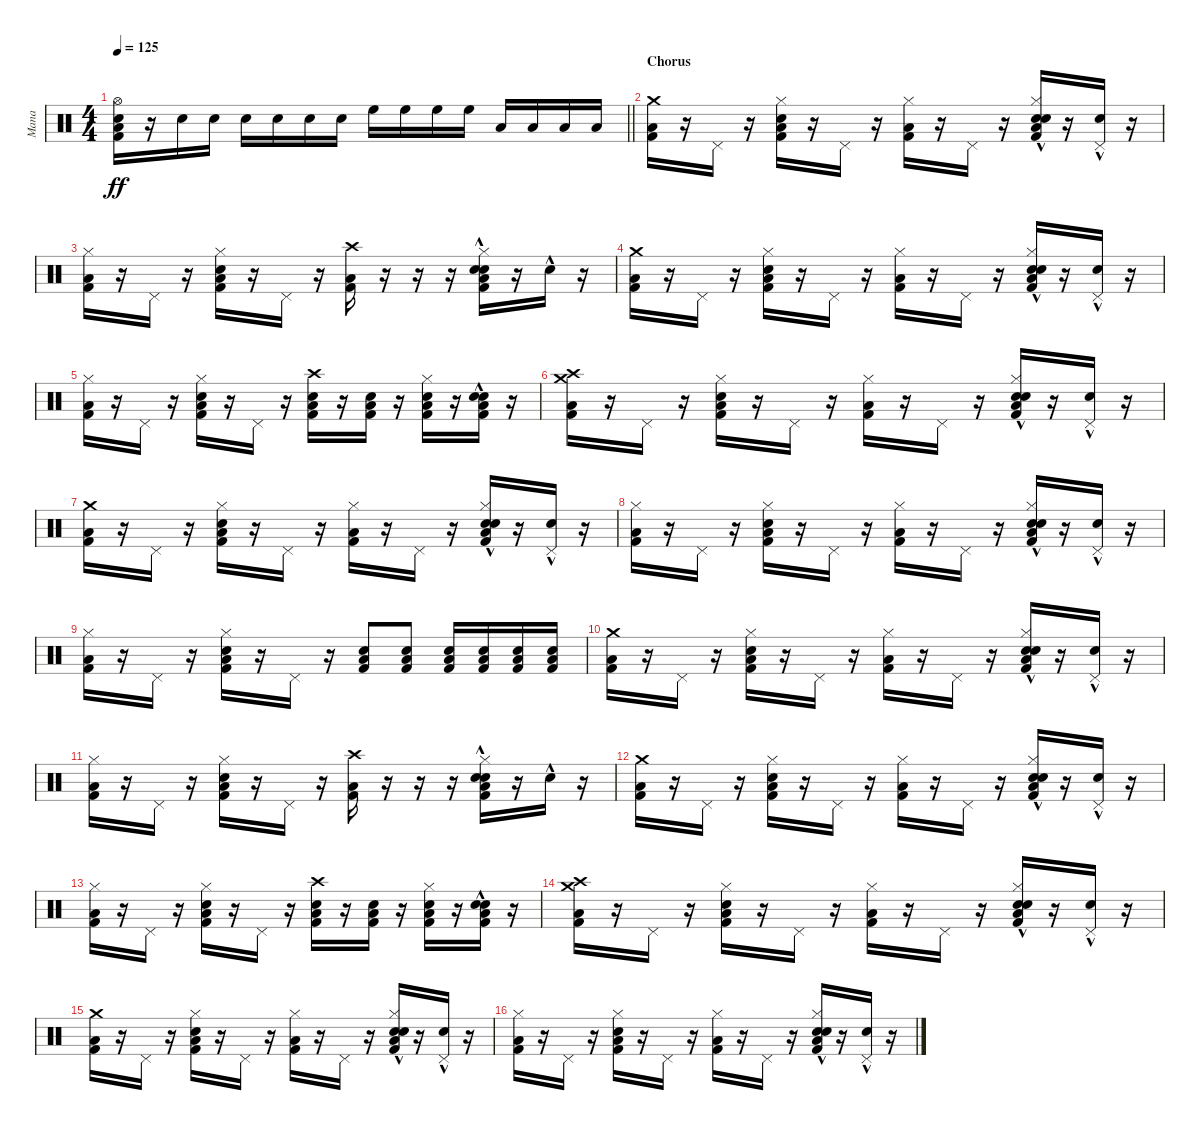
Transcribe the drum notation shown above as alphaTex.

\track ("Mana" "Mana") {instrument percussion}
\staff {score}
\articulation defaults
\ts (4 4)
\tempo 125
\clef neutral
\barLineRight lightlight
\ks c
("Hi-Hat (open)" "Snare (hit) 2" "Low Floor Tom (hit)" "Kick (hit) 2").16{dy ff} r.16 "Snare (hit) 2".16 "Snare (hit) 2".16 "Snare (hit) 2".16 "Snare (hit) 2".16 "Snare (hit) 2".16 "Snare (hit) 2".16 "High Floor Tom (hit)".16 "High Floor Tom (hit)".16 "High Floor Tom (hit)".16 "High Floor Tom (hit)".16 "Low Floor Tom (hit)".16 "Low Floor Tom (hit)".16 "Low Floor Tom (hit)".16 "Low Floor Tom (hit)".16 |
\section ("" "Chorus")
("Crash medium (hit)" "Low Floor Tom (hit)" "Kick (hit) 2").16 r.16 "Pedal Hi-Hat (hit)".16 r.16 ("Hi-Hat (closed)" "Snare (hit) 2" "Low Floor Tom (hit)" "Kick (hit) 2").16 r.16 "Pedal Hi-Hat (hit)".16 r.16 ("Hi-Hat (closed)" "Low Floor Tom (hit)" "Kick (hit) 2").16 r.16 "Pedal Hi-Hat (hit)".16 r.16 ("Hand Clap (hit)"{hac} "Hi-Hat (closed)" "Snare (hit) 2" "Low Floor Tom (hit)" "Kick (hit) 2").16 r.16 ("Hand Clap (hit)"{hac} "Pedal Hi-Hat (hit)").16 r.16 |
("Hi-Hat (closed)" "Low Floor Tom (hit)" "Kick (hit) 2").16 r.16 "Pedal Hi-Hat (hit)".16 r.16 ("Hi-Hat (closed)" "Snare (hit) 2" "Low Floor Tom (hit)" "Kick (hit) 2").16 r.16 "Pedal Hi-Hat (hit)".16 r.16 ("Crash high (hit)" "Low Floor Tom (hit)" "Kick (hit) 2").16 r.16 r.16 r.16 ("Hand Clap (hit)"{hac} "Hi-Hat (closed)" "Snare (hit) 2" "Low Floor Tom (hit)" "Kick (hit) 2").16 r.16 "Hand Clap (hit)"{hac}.16 r.16 |
("Crash medium (hit)" "Low Floor Tom (hit)" "Kick (hit) 2").16 r.16 "Pedal Hi-Hat (hit)".16 r.16 ("Hi-Hat (closed)" "Snare (hit) 2" "Low Floor Tom (hit)" "Kick (hit) 2").16 r.16 "Pedal Hi-Hat (hit)".16 r.16 ("Hi-Hat (closed)" "Low Floor Tom (hit)" "Kick (hit) 2").16 r.16 "Pedal Hi-Hat (hit)".16 r.16 ("Hand Clap (hit)"{hac} "Hi-Hat (closed)" "Snare (hit) 2" "Low Floor Tom (hit)" "Kick (hit) 2").16 r.16 ("Hand Clap (hit)"{hac} "Pedal Hi-Hat (hit)").16 r.16 |
("Hi-Hat (closed)" "Low Floor Tom (hit)" "Kick (hit) 2").16 r.16 "Pedal Hi-Hat (hit)".16 r.16 ("Hi-Hat (closed)" "Snare (hit) 2" "Low Floor Tom (hit)" "Kick (hit) 2").16 r.16 "Pedal Hi-Hat (hit)".16 r.16 ("Crash high (hit)" "Snare (hit) 2" "Low Floor Tom (hit)" "Kick (hit) 2").16 r.16 ("Snare (hit) 2" "Low Floor Tom (hit)" "Kick (hit) 2").16 r.16 ("Hand Clap (hit)" "Hi-Hat (closed)" "Low Floor Tom (hit)" "Kick (hit) 2").16 r.16 ("Hand Clap (hit)"{hac} "Snare (hit) 2" "Low Floor Tom (hit)" "Kick (hit) 2").16 r.16 |
("Crash medium (hit)" "Crash high (hit)" "Low Floor Tom (hit)" "Kick (hit) 2").16 r.16 "Pedal Hi-Hat (hit)".16 r.16 ("Hi-Hat (closed)" "Snare (hit) 2" "Low Floor Tom (hit)" "Kick (hit) 2").16 r.16 "Pedal Hi-Hat (hit)".16 r.16 ("Hi-Hat (closed)" "Low Floor Tom (hit)" "Kick (hit) 2").16 r.16 "Pedal Hi-Hat (hit)".16 r.16 ("Hand Clap (hit)"{hac} "Hi-Hat (closed)" "Snare (hit) 2" "Low Floor Tom (hit)" "Kick (hit) 2").16 r.16 ("Hand Clap (hit)"{hac} "Pedal Hi-Hat (hit)").16 r.16 |
("Crash medium (hit)" "Low Floor Tom (hit)" "Kick (hit) 2").16 r.16 "Pedal Hi-Hat (hit)".16 r.16 ("Hi-Hat (closed)" "Snare (hit) 2" "Low Floor Tom (hit)" "Kick (hit) 2").16 r.16 "Pedal Hi-Hat (hit)".16 r.16 ("Hi-Hat (closed)" "Low Floor Tom (hit)" "Kick (hit) 2").16 r.16 "Pedal Hi-Hat (hit)".16 r.16 ("Hand Clap (hit)"{hac} "Hi-Hat (closed)" "Snare (hit) 2" "Low Floor Tom (hit)" "Kick (hit) 2").16 r.16 ("Hand Clap (hit)"{hac} "Pedal Hi-Hat (hit)").16 r.16 |
("Hi-Hat (closed)" "Low Floor Tom (hit)" "Kick (hit) 2").16 r.16 "Pedal Hi-Hat (hit)".16 r.16 ("Hi-Hat (closed)" "Snare (hit) 2" "Low Floor Tom (hit)" "Kick (hit) 2").16 r.16 "Pedal Hi-Hat (hit)".16 r.16 ("Hi-Hat (closed)" "Low Floor Tom (hit)" "Kick (hit) 2").16 r.16 "Pedal Hi-Hat (hit)".16 r.16 ("Hand Clap (hit)"{hac} "Hi-Hat (closed)" "Snare (hit) 2" "Low Floor Tom (hit)" "Kick (hit) 2").16 r.16 ("Hand Clap (hit)"{hac} "Pedal Hi-Hat (hit)").16 r.16 |
("Hi-Hat (closed)" "Low Floor Tom (hit)" "Kick (hit) 2").16 r.16 "Pedal Hi-Hat (hit)".16 r.16 ("Hi-Hat (closed)" "Snare (hit) 2" "Low Floor Tom (hit)" "Kick (hit) 2").16 r.16 "Pedal Hi-Hat (hit)".16 r.16 ("Low Floor Tom (hit)" "Snare (hit) 2" "Kick (hit) 2").8 ("Low Floor Tom (hit)" "Snare (hit) 2" "Kick (hit) 2").8 ("Low Floor Tom (hit)" "Snare (hit) 2" "Kick (hit) 2").16 ("Low Floor Tom (hit)" "Snare (hit) 2" "Kick (hit) 2").16 ("Low Floor Tom (hit)" "Snare (hit) 2" "Kick (hit) 2").16 ("Low Floor Tom (hit)" "Snare (hit) 2" "Kick (hit) 2").16 |
("Crash medium (hit)" "Low Floor Tom (hit)" "Kick (hit) 2").16 r.16 "Pedal Hi-Hat (hit)".16 r.16 ("Hi-Hat (closed)" "Snare (hit) 2" "Low Floor Tom (hit)" "Kick (hit) 2").16 r.16 "Pedal Hi-Hat (hit)".16 r.16 ("Hi-Hat (closed)" "Low Floor Tom (hit)" "Kick (hit) 2").16 r.16 "Pedal Hi-Hat (hit)".16 r.16 ("Hand Clap (hit)"{hac} "Hi-Hat (closed)" "Snare (hit) 2" "Low Floor Tom (hit)" "Kick (hit) 2").16 r.16 ("Hand Clap (hit)"{hac} "Pedal Hi-Hat (hit)").16 r.16 |
("Hi-Hat (closed)" "Low Floor Tom (hit)" "Kick (hit) 2").16 r.16 "Pedal Hi-Hat (hit)".16 r.16 ("Hi-Hat (closed)" "Snare (hit) 2" "Low Floor Tom (hit)" "Kick (hit) 2").16 r.16 "Pedal Hi-Hat (hit)".16 r.16 ("Crash high (hit)" "Low Floor Tom (hit)" "Kick (hit) 2").16 r.16 r.16 r.16 ("Hand Clap (hit)"{hac} "Hi-Hat (closed)" "Snare (hit) 2" "Low Floor Tom (hit)" "Kick (hit) 2").16 r.16 "Hand Clap (hit)"{hac}.16 r.16 |
("Crash medium (hit)" "Low Floor Tom (hit)" "Kick (hit) 2").16 r.16 "Pedal Hi-Hat (hit)".16 r.16 ("Hi-Hat (closed)" "Snare (hit) 2" "Low Floor Tom (hit)" "Kick (hit) 2").16 r.16 "Pedal Hi-Hat (hit)".16 r.16 ("Hi-Hat (closed)" "Low Floor Tom (hit)" "Kick (hit) 2").16 r.16 "Pedal Hi-Hat (hit)".16 r.16 ("Hand Clap (hit)"{hac} "Hi-Hat (closed)" "Snare (hit) 2" "Low Floor Tom (hit)" "Kick (hit) 2").16 r.16 ("Hand Clap (hit)"{hac} "Pedal Hi-Hat (hit)").16 r.16 |
("Hi-Hat (closed)" "Low Floor Tom (hit)" "Kick (hit) 2").16 r.16 "Pedal Hi-Hat (hit)".16 r.16 ("Hi-Hat (closed)" "Snare (hit) 2" "Low Floor Tom (hit)" "Kick (hit) 2").16 r.16 "Pedal Hi-Hat (hit)".16 r.16 ("Crash high (hit)" "Snare (hit) 2" "Low Floor Tom (hit)" "Kick (hit) 2").16 r.16 ("Snare (hit) 2" "Low Floor Tom (hit)" "Kick (hit) 2").16 r.16 ("Hand Clap (hit)" "Hi-Hat (closed)" "Low Floor Tom (hit)" "Kick (hit) 2").16 r.16 ("Hand Clap (hit)"{hac} "Snare (hit) 2" "Low Floor Tom (hit)" "Kick (hit) 2").16 r.16 |
("Crash medium (hit)" "Crash high (hit)" "Low Floor Tom (hit)" "Kick (hit) 2").16 r.16 "Pedal Hi-Hat (hit)".16 r.16 ("Hi-Hat (closed)" "Snare (hit) 2" "Low Floor Tom (hit)" "Kick (hit) 2").16 r.16 "Pedal Hi-Hat (hit)".16 r.16 ("Hi-Hat (closed)" "Low Floor Tom (hit)" "Kick (hit) 2").16 r.16 "Pedal Hi-Hat (hit)".16 r.16 ("Hand Clap (hit)"{hac} "Hi-Hat (closed)" "Snare (hit) 2" "Low Floor Tom (hit)" "Kick (hit) 2").16 r.16 ("Hand Clap (hit)"{hac} "Pedal Hi-Hat (hit)").16 r.16 |
("Crash medium (hit)" "Low Floor Tom (hit)" "Kick (hit) 2").16 r.16 "Pedal Hi-Hat (hit)".16 r.16 ("Hi-Hat (closed)" "Snare (hit) 2" "Low Floor Tom (hit)" "Kick (hit) 2").16 r.16 "Pedal Hi-Hat (hit)".16 r.16 ("Hi-Hat (closed)" "Low Floor Tom (hit)" "Kick (hit) 2").16 r.16 "Pedal Hi-Hat (hit)".16 r.16 ("Hand Clap (hit)"{hac} "Hi-Hat (closed)" "Snare (hit) 2" "Low Floor Tom (hit)" "Kick (hit) 2").16 r.16 ("Hand Clap (hit)"{hac} "Pedal Hi-Hat (hit)").16 r.16 |
("Hi-Hat (closed)" "Low Floor Tom (hit)" "Kick (hit) 2").16 r.16 "Pedal Hi-Hat (hit)".16 r.16 ("Hi-Hat (closed)" "Snare (hit) 2" "Low Floor Tom (hit)" "Kick (hit) 2").16 r.16 "Pedal Hi-Hat (hit)".16 r.16 ("Hi-Hat (closed)" "Low Floor Tom (hit)" "Kick (hit) 2").16 r.16 "Pedal Hi-Hat (hit)".16 r.16 ("Hand Clap (hit)"{hac} "Hi-Hat (closed)" "Snare (hit) 2" "Low Floor Tom (hit)" "Kick (hit) 2").16 r.16 ("Hand Clap (hit)"{hac} "Pedal Hi-Hat (hit)").16 r.16
